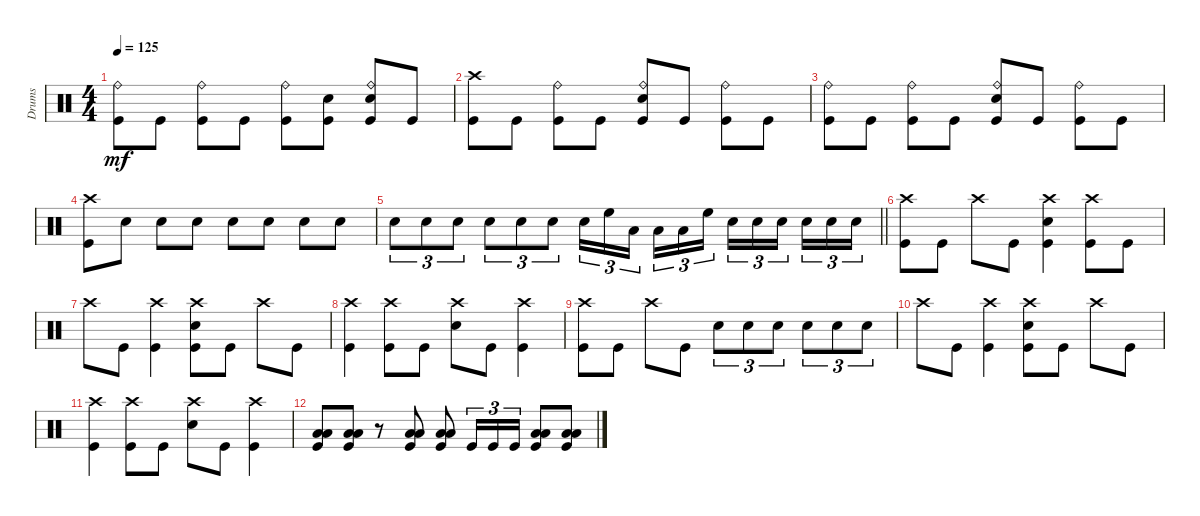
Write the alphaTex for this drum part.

\track ("Drums" "Drums") {instrument percussion}
\staff {score}
\articulation defaults
\ts (4 4)
\tempo 125
\clef neutral
\ks c
("Kick (hit)" "Ride (bell)").8{dy mf} "Kick (hit)".8 ("Kick (hit)" "Ride (bell)").8 "Kick (hit)".8 ("Kick (hit)" "Ride (bell)").8 ("Kick (hit)" "Snare (hit) 2").8 ("Kick (hit)" "Snare (hit) 2" "Ride (bell)").8 "Kick (hit)".8 |
("Crash high (hit)" "Kick (hit)").8 "Kick (hit)".8 ("Ride (bell)" "Kick (hit)").8 "Kick (hit)".8 ("Snare (hit) 2" "Ride (bell)" "Kick (hit)").8 "Kick (hit)".8 ("Ride (bell)" "Kick (hit)").8 "Kick (hit)".8 |
("Kick (hit)" "Ride (bell)").8 "Kick (hit)".8 ("Kick (hit)" "Ride (bell)").8 "Kick (hit)".8 ("Kick (hit)" "Snare (hit) 2" "Ride (bell)").8 "Kick (hit)".8 ("Kick (hit)" "Ride (bell)").8 "Kick (hit)".8 |
("Kick (hit)" "Crash high (hit)").8 "Snare (hit) 2".8 "Snare (hit) 2".8 "Snare (hit) 2".8 "Snare (hit) 2".8 "Snare (hit) 2".8 "Snare (hit) 2".8 "Snare (hit) 2".8 |
\barLineRight lightlight "Snare (hit) 2".8{tu (3 2)} "Snare (hit) 2".8{tu (3 2)} "Snare (hit) 2".8{tu (3 2)} "Snare (hit) 2".8{tu (3 2)} "Snare (hit) 2".8{tu (3 2)} "Snare (hit) 2".8{tu (3 2)} "Snare (hit) 2".16{tu (3 2)} "High Floor Tom (hit)".16{tu (3 2)} "Low Tom (hit)".16{tu (3 2) beam splitsecondary} "Low Floor Tom (hit)".16{tu (3 2)} "Low Tom (hit)".16{tu (3 2)} "High Floor Tom (hit)".16{tu (3 2)} "Snare (hit) 2".16{tu (3 2)} "Snare (hit) 2".16{tu (3 2)} "Snare (hit) 2".16{tu (3 2) beam splitsecondary} "Snare (hit) 2".16{tu (3 2)} "Snare (hit) 2".16{tu (3 2)} "Snare (hit) 2".16{tu (3 2)}
|
("Crash high (hit)" "Kick (hit)").8 "Kick (hit)".8 "Crash high (hit)".8 "Kick (hit)".8 ("Kick (hit)" "Snare (hit) 2" "Crash high (hit)").4 ("Crash high (hit)" "Kick (hit)").8 "Kick (hit)".8 |
"Crash high (hit)".8 "Kick (hit)".8 ("Kick (hit)" "Crash high (hit)").4 ("Kick (hit)" "Snare (hit) 2" "Crash high (hit)").8 "Kick (hit)".8 "Crash high (hit)".8 "Kick (hit)".8 |
("Kick (hit)" "Crash high (hit)").4 ("Kick (hit)" "Crash high (hit)").8 "Kick (hit)".8 ("Snare (hit) 2" "Crash high (hit)").8 "Kick (hit)".8 ("Kick (hit)" "Crash high (hit)").4 |
("Kick (hit)" "Crash high (hit)").8 "Kick (hit)".8 "Crash high (hit)".8 "Kick (hit)".8 "Snare (hit) 2".8{tu (3 2)} "Snare (hit) 2".8{tu (3 2)} "Snare (hit) 2".8{tu (3 2)} "Snare (hit) 2".8{tu (3 2)} "Snare (hit) 2".8{tu (3 2)} "Snare (hit) 2".8{tu (3 2)} |
"Crash high (hit)".8 "Kick (hit)".8 ("Crash high (hit)" "Kick (hit)").4 ("Snare (hit) 2" "Crash high (hit)" "Kick (hit)").8 "Kick (hit)".8 "Crash high (hit)".8 "Kick (hit)".8 |
("Crash high (hit)" "Kick (hit)").4 ("Crash high (hit)" "Kick (hit)").8 "Kick (hit)".8 ("Snare (hit) 2" "Crash high (hit)").8 "Kick (hit)".8 ("Crash high (hit)" "Kick (hit)").4 |
("Low Floor Tom (hit)" "Low Tom (hit)" "Kick (hit)").8 ("Low Floor Tom (hit)" "Low Tom (hit)" "Kick (hit)").8 r.8 ("Low Floor Tom (hit)" "Low Tom (hit)" "Kick (hit)").8 ("Low Floor Tom (hit)" "Low Tom (hit)" "Kick (hit)").8 "Kick (hit)".16{tu (3 2)} "Kick (hit)".16{tu (3 2)} "Kick (hit)".16{tu (3 2)} ("Low Floor Tom (hit)" "Low Tom (hit)" "Kick (hit)").8 ("Low Floor Tom (hit)" "Low Tom (hit)" "Kick (hit)").8
